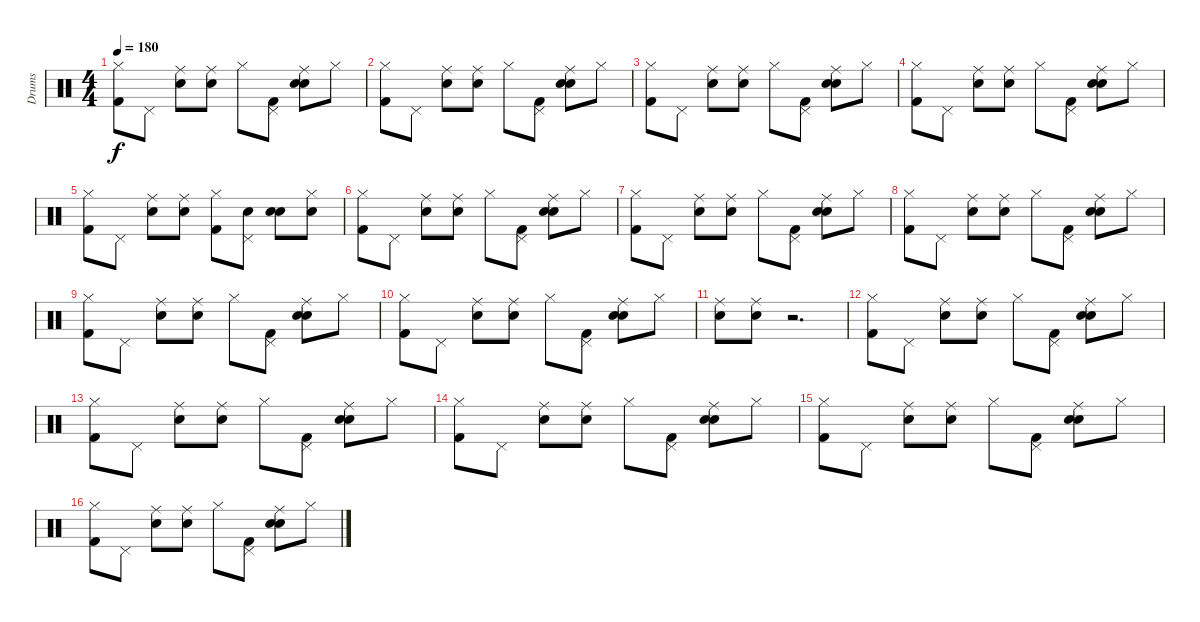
\track ("Drums" "Drums") {instrument percussion}
\staff {score}
\articulation defaults
\ts (4 4)
\tempo 180
\clef neutral
\ks c
("Hi-Hat (closed)" "Kick (hit) 2").8{dy f} "Pedal Hi-Hat (hit)".8 ("Ride (middle)" "Snare (hit) 2").8 ("Ride (middle)" "Snare (hit) 2").8 "Hi-Hat (closed)".8 ("Pedal Hi-Hat (hit)" "Kick (hit) 2").8 ("Hand Clap (hit)" "Ride (middle)" "Snare (hit) 2").8 "Hi-Hat (closed)".8 |
("Hi-Hat (closed)" "Kick (hit) 2").8 "Pedal Hi-Hat (hit)".8 ("Ride (middle)" "Snare (hit) 2").8 ("Ride (middle)" "Snare (hit) 2").8 "Hi-Hat (closed)".8 ("Pedal Hi-Hat (hit)" "Kick (hit) 2").8 ("Hand Clap (hit)" "Ride (middle)" "Snare (hit) 2").8 "Hi-Hat (closed)".8 |
("Hi-Hat (closed)" "Kick (hit) 2").8 "Pedal Hi-Hat (hit)".8 ("Ride (middle)" "Snare (hit) 2").8 ("Ride (middle)" "Snare (hit) 2").8 "Hi-Hat (closed)".8 ("Pedal Hi-Hat (hit)" "Kick (hit) 2").8 ("Hand Clap (hit)" "Ride (middle)" "Snare (hit) 2").8 "Hi-Hat (closed)".8 |
("Hi-Hat (closed)" "Kick (hit) 2").8 "Pedal Hi-Hat (hit)".8 ("Ride (middle)" "Snare (hit) 2").8 ("Ride (middle)" "Snare (hit) 2").8 "Hi-Hat (closed)".8 ("Pedal Hi-Hat (hit)" "Kick (hit) 2").8 ("Hand Clap (hit)" "Ride (middle)" "Snare (hit) 2").8 "Hi-Hat (closed)".8 |
("Hi-Hat (closed)" "Kick (hit) 2").8 "Pedal Hi-Hat (hit)".8 ("Ride (middle)" "Snare (hit) 2").8 ("Ride (middle)" "Snare (hit) 2").8 ("Hi-Hat (closed)" "Kick (hit) 2").8 ("Pedal Hi-Hat (hit)" "Snare (hit) 2").8 ("Hand Clap (hit)" "Snare (hit) 2").8 ("Hi-Hat (closed)" "Snare (hit) 2").8 |
("Hi-Hat (closed)" "Kick (hit) 2").8 "Pedal Hi-Hat (hit)".8 ("Ride (middle)" "Snare (hit) 2").8 ("Ride (middle)" "Snare (hit) 2").8 "Hi-Hat (closed)".8 ("Pedal Hi-Hat (hit)" "Kick (hit) 2").8 ("Hand Clap (hit)" "Ride (middle)" "Snare (hit) 2").8 "Hi-Hat (closed)".8 |
("Hi-Hat (closed)" "Kick (hit) 2").8 "Pedal Hi-Hat (hit)".8 ("Ride (middle)" "Snare (hit) 2").8 ("Ride (middle)" "Snare (hit) 2").8 "Hi-Hat (closed)".8 ("Pedal Hi-Hat (hit)" "Kick (hit) 2").8 ("Hand Clap (hit)" "Ride (middle)" "Snare (hit) 2").8 "Hi-Hat (closed)".8 |
("Hi-Hat (closed)" "Kick (hit) 2").8 "Pedal Hi-Hat (hit)".8 ("Ride (middle)" "Snare (hit) 2").8 ("Ride (middle)" "Snare (hit) 2").8 "Hi-Hat (closed)".8 ("Pedal Hi-Hat (hit)" "Kick (hit) 2").8 ("Hand Clap (hit)" "Ride (middle)" "Snare (hit) 2").8 "Hi-Hat (closed)".8 |
("Hi-Hat (closed)" "Kick (hit) 2").8 "Pedal Hi-Hat (hit)".8 ("Ride (middle)" "Snare (hit) 2").8 ("Ride (middle)" "Snare (hit) 2").8 "Hi-Hat (closed)".8 ("Pedal Hi-Hat (hit)" "Kick (hit) 2").8 ("Hand Clap (hit)" "Ride (middle)" "Snare (hit) 2").8 "Hi-Hat (closed)".8 |
("Hi-Hat (closed)" "Kick (hit) 2").8 "Pedal Hi-Hat (hit)".8 ("Ride (middle)" "Snare (hit) 2").8 ("Ride (middle)" "Snare (hit) 2").8 "Hi-Hat (closed)".8 ("Pedal Hi-Hat (hit)" "Kick (hit) 2").8 ("Hand Clap (hit)" "Ride (middle)" "Snare (hit) 2").8 "Hi-Hat (closed)".8 |
("Ride (middle)" "Snare (hit) 2").8 ("Ride (middle)" "Snare (hit) 2").8 r.2{d} |
("Hi-Hat (closed)" "Kick (hit) 2").8 "Pedal Hi-Hat (hit)".8 ("Ride (middle)" "Snare (hit) 2").8 ("Ride (middle)" "Snare (hit) 2").8 "Hi-Hat (closed)".8 ("Pedal Hi-Hat (hit)" "Kick (hit) 2").8 ("Hand Clap (hit)" "Ride (middle)" "Snare (hit) 2").8 "Hi-Hat (closed)".8 |
("Hi-Hat (closed)" "Kick (hit) 2").8 "Pedal Hi-Hat (hit)".8 ("Ride (middle)" "Snare (hit) 2").8 ("Ride (middle)" "Snare (hit) 2").8 "Hi-Hat (closed)".8 ("Pedal Hi-Hat (hit)" "Kick (hit) 2").8 ("Hand Clap (hit)" "Ride (middle)" "Snare (hit) 2").8 "Hi-Hat (closed)".8 |
("Hi-Hat (closed)" "Kick (hit) 2").8 "Pedal Hi-Hat (hit)".8 ("Ride (middle)" "Snare (hit) 2").8 ("Ride (middle)" "Snare (hit) 2").8 "Hi-Hat (closed)".8 ("Pedal Hi-Hat (hit)" "Kick (hit) 2").8 ("Hand Clap (hit)" "Ride (middle)" "Snare (hit) 2").8 "Hi-Hat (closed)".8 |
("Hi-Hat (closed)" "Kick (hit) 2").8 "Pedal Hi-Hat (hit)".8 ("Ride (middle)" "Snare (hit) 2").8 ("Ride (middle)" "Snare (hit) 2").8 "Hi-Hat (closed)".8 ("Pedal Hi-Hat (hit)" "Kick (hit) 2").8 ("Hand Clap (hit)" "Ride (middle)" "Snare (hit) 2").8 "Hi-Hat (closed)".8 |
("Hi-Hat (closed)" "Kick (hit) 2").8 "Pedal Hi-Hat (hit)".8 ("Ride (middle)" "Snare (hit) 2").8 ("Ride (middle)" "Snare (hit) 2").8 "Hi-Hat (closed)".8 ("Pedal Hi-Hat (hit)" "Kick (hit) 2").8 ("Hand Clap (hit)" "Ride (middle)" "Snare (hit) 2").8 "Hi-Hat (closed)".8
